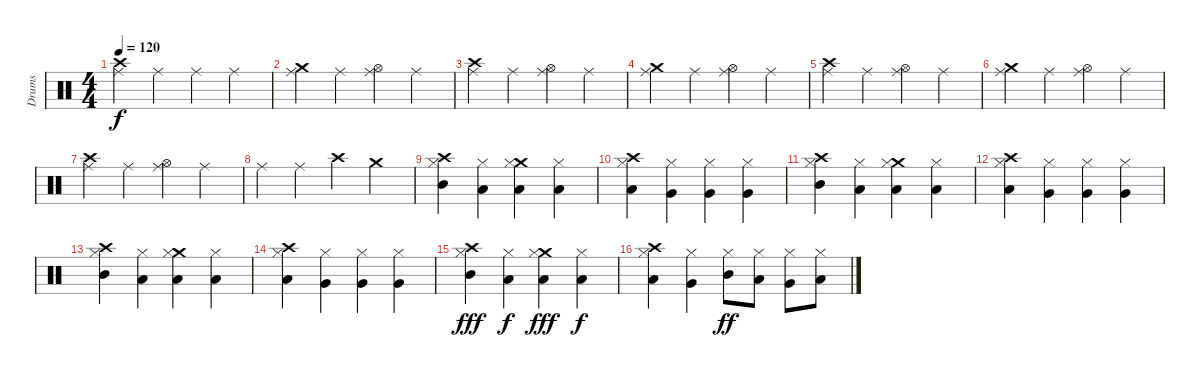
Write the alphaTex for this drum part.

\track ("Drums" "Drums") {instrument percussion}
\staff {score}
\articulation defaults
\ts (4 4)
\tempo 120
\clef neutral
\ks c
("Crash high (hit)" "Ride (middle)").4{dy f} "Ride (middle)".4 "Ride (middle)".4 "Ride (middle)".4 |
("Crash medium (hit)" "Ride (middle)").4 "Ride (middle)".4 ("Hi-Hat (open)" "Ride (middle)").4 "Ride (middle)".4 |
("Crash high (hit)" "Ride (middle)").4 "Ride (middle)".4 ("Hi-Hat (open)" "Ride (middle)").4 "Ride (middle)".4 |
("Crash medium (hit)" "Ride (middle)").4 "Ride (middle)".4 ("Hi-Hat (open)" "Ride (middle)").4 "Ride (middle)".4 |
("Crash high (hit)" "Ride (middle)").4 "Ride (middle)".4 ("Hi-Hat (open)" "Ride (middle)").4 "Ride (middle)".4 |
("Crash medium (hit)" "Ride (middle)").4 "Ride (middle)".4 ("Hi-Hat (open)" "Ride (middle)").4 "Ride (middle)".4 |
("Crash high (hit)" "Ride (middle)").4 "Ride (middle)".4 ("Hi-Hat (open)" "Ride (middle)").4 "Ride (middle)".4 |
"Ride (middle)".4 "Ride (middle)".4 "Crash high (hit)".4 "Crash medium (hit)".4 |
("Crash high (hit)" "Hi-Hat (closed)" "Mid Tom (hit)").4 ("Hi-Hat (closed)" "Low Tom (hit)").4 ("Crash medium (hit)" "Hi-Hat (closed)" "Low Tom (hit)").4 ("Hi-Hat (closed)" "Low Tom (hit)").4 |
("Crash high (hit)" "Hi-Hat (closed)" "Low Tom (hit)").4 ("Hi-Hat (closed)" "Very Low Tom (hit)").4 ("Hi-Hat (closed)" "Very Low Tom (hit)").4 ("Hi-Hat (closed)" "Very Low Tom (hit)").4 |
("Crash high (hit)" "Hi-Hat (closed)" "Mid Tom (hit)").4 ("Hi-Hat (closed)" "Low Tom (hit)").4 ("Crash medium (hit)" "Hi-Hat (closed)" "Low Tom (hit)").4 ("Hi-Hat (closed)" "Low Tom (hit)").4 |
("Crash high (hit)" "Hi-Hat (closed)" "Low Tom (hit)").4 ("Hi-Hat (closed)" "Very Low Tom (hit)").4 ("Hi-Hat (closed)" "Very Low Tom (hit)").4 ("Hi-Hat (closed)" "Very Low Tom (hit)").4 |
("Crash high (hit)" "Hi-Hat (closed)" "Mid Tom (hit)").4 ("Hi-Hat (closed)" "Low Tom (hit)").4 ("Crash medium (hit)" "Hi-Hat (closed)" "Low Tom (hit)").4 ("Hi-Hat (closed)" "Low Tom (hit)").4 |
("Crash high (hit)" "Hi-Hat (closed)" "Low Tom (hit)").4 ("Hi-Hat (closed)" "Very Low Tom (hit)").4 ("Hi-Hat (closed)" "Very Low Tom (hit)").4 ("Hi-Hat (closed)" "Very Low Tom (hit)").4 |
("Crash high (hit)" "Hi-Hat (closed)" "Mid Tom (hit)").4{dy fff} ("Hi-Hat (closed)" "Low Tom (hit)").4{dy f} ("Crash medium (hit)" "Hi-Hat (closed)" "Low Tom (hit)").4{dy fff} ("Hi-Hat (closed)" "Low Tom (hit)").4{dy f} |
("Crash high (hit)" "Hi-Hat (closed)" "Low Tom (hit)").4 ("Hi-Hat (closed)" "Very Low Tom (hit)").4 ("Hi-Hat (closed)" "Mid Tom (hit)").8{dy ff} ("Hi-Hat (closed)" "Low Tom (hit)").8 ("Hi-Hat (closed)" "Very Low Tom (hit)").8 ("Hi-Hat (closed)" "Low Floor Tom (hit)").8
